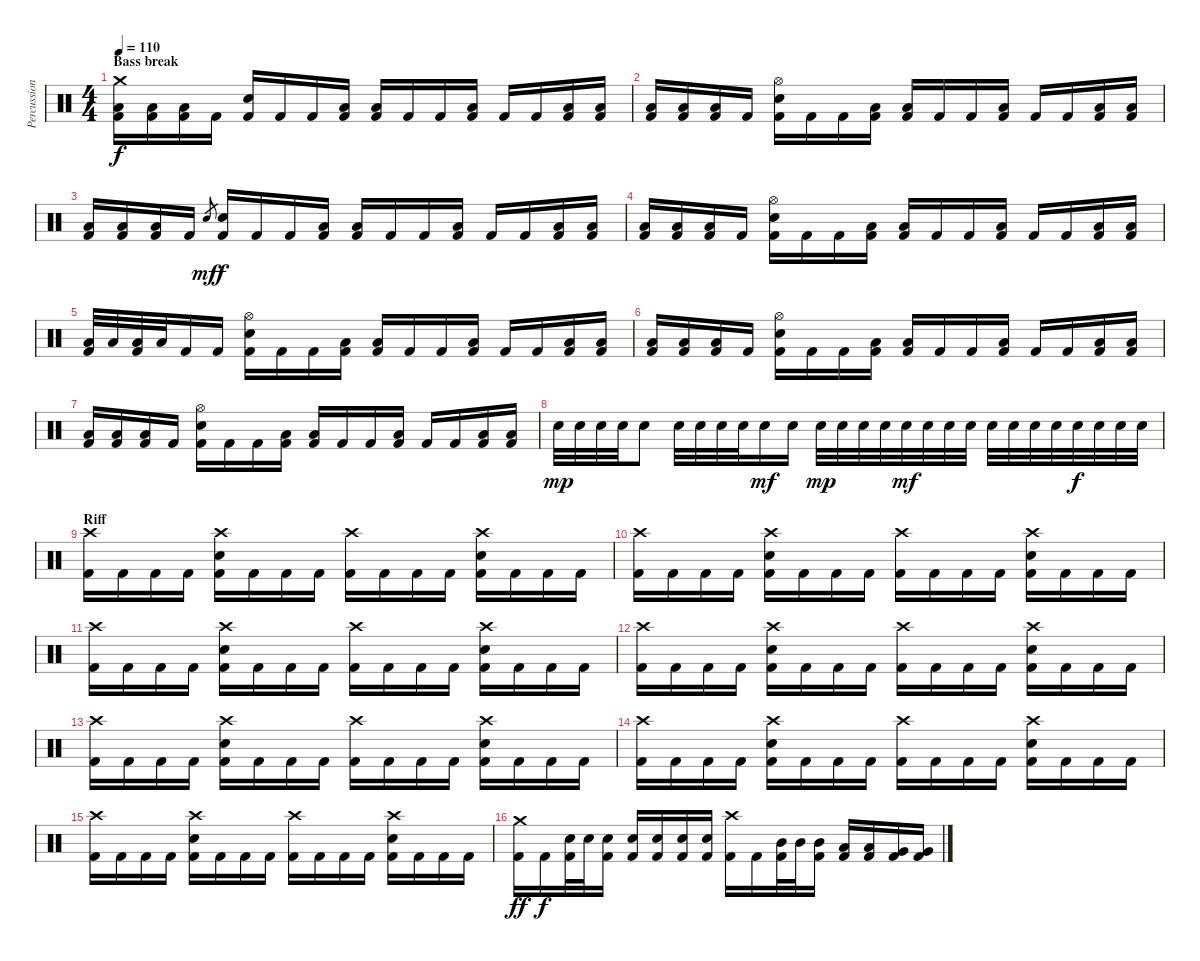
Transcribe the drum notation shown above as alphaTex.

\track ("Percussions" "Percussion") {instrument percussion}
\staff {score}
\articulation defaults
\ts (4 4)
\section ("" "Bass break")
\tempo 110
\clef neutral
\ks c
("Crash medium (hit)" "Low Tom (hit)" "Kick (hit) 2").16{dy f} ("Low Tom (hit)" "Kick (hit) 2").16 ("Low Tom (hit)" "Kick (hit) 2").16 "Kick (hit) 2".16 ("Electric Snare (hit)" "Kick (hit) 2").16 "Kick (hit) 2".16 "Kick (hit) 2".16 ("Low Tom (hit)" "Kick (hit) 2").16 ("Low Tom (hit)" "Kick (hit) 2").16 "Kick (hit) 2".16 "Kick (hit) 2".16 ("Low Tom (hit)" "Kick (hit) 2").16 "Kick (hit) 2".16 "Kick (hit) 2".16 ("Low Tom (hit)" "Kick (hit) 2").16 ("Low Tom (hit)" "Kick (hit) 2").16 |
("Low Tom (hit)" "Kick (hit) 2").16 ("Low Tom (hit)" "Kick (hit) 2").16 ("Low Tom (hit)" "Kick (hit) 2").16 "Kick (hit) 2".16 ("Hi-Hat (open)" "Electric Snare (hit)" "Kick (hit) 2").16 "Kick (hit) 2".16 "Kick (hit) 2".16 ("Low Tom (hit)" "Kick (hit) 2").16 ("Low Tom (hit)" "Kick (hit) 2").16 "Kick (hit) 2".16 "Kick (hit) 2".16 ("Low Tom (hit)" "Kick (hit) 2").16 "Kick (hit) 2".16 "Kick (hit) 2".16 ("Low Tom (hit)" "Kick (hit) 2").16 ("Low Tom (hit)" "Kick (hit) 2").16 |
("Low Tom (hit)" "Kick (hit) 2").16 ("Low Tom (hit)" "Kick (hit) 2").16 ("Low Tom (hit)" "Kick (hit) 2").16 "Kick (hit) 2".16 "Electric Snare (hit)".8{gr dy mf} ("Electric Snare (hit)" "Kick (hit) 2").16{dy f} "Kick (hit) 2".16 "Kick (hit) 2".16 ("Low Tom (hit)" "Kick (hit) 2").16 ("Low Tom (hit)" "Kick (hit) 2").16 "Kick (hit) 2".16 "Kick (hit) 2".16 ("Low Tom (hit)" "Kick (hit) 2").16 "Kick (hit) 2".16 "Kick (hit) 2".16 ("Low Tom (hit)" "Kick (hit) 2").16 ("Low Tom (hit)" "Kick (hit) 2").16 |
("Low Tom (hit)" "Kick (hit) 2").16 ("Low Tom (hit)" "Kick (hit) 2").16 ("Low Tom (hit)" "Kick (hit) 2").16 "Kick (hit) 2".16 ("Hi-Hat (open)" "Electric Snare (hit)" "Kick (hit) 2").16 "Kick (hit) 2".16 "Kick (hit) 2".16 ("Low Tom (hit)" "Kick (hit) 2").16 ("Low Tom (hit)" "Kick (hit) 2").16 "Kick (hit) 2".16 "Kick (hit) 2".16 ("Low Tom (hit)" "Kick (hit) 2").16 "Kick (hit) 2".16 "Kick (hit) 2".16 ("Low Tom (hit)" "Kick (hit) 2").16 ("Low Tom (hit)" "Kick (hit) 2").16 |
("Low Tom (hit)" "Kick (hit) 2").32 "Low Tom (hit)".32 ("Low Tom (hit)" "Kick (hit) 2").32 "Low Tom (hit)".32 "Kick (hit) 2".16 "Kick (hit) 2".16 ("Hi-Hat (open)" "Electric Snare (hit)" "Kick (hit) 2").16 "Kick (hit) 2".16 "Kick (hit) 2".16 ("Low Tom (hit)" "Kick (hit) 2").16 ("Low Tom (hit)" "Kick (hit) 2").16 "Kick (hit) 2".16 "Kick (hit) 2".16 ("Low Tom (hit)" "Kick (hit) 2").16 "Kick (hit) 2".16 "Kick (hit) 2".16 ("Low Tom (hit)" "Kick (hit) 2").16 ("Low Tom (hit)" "Kick (hit) 2").16 |
("Low Tom (hit)" "Kick (hit) 2").16 ("Low Tom (hit)" "Kick (hit) 2").16 ("Low Tom (hit)" "Kick (hit) 2").16 "Kick (hit) 2".16 ("Hi-Hat (open)" "Electric Snare (hit)" "Kick (hit) 2").16 "Kick (hit) 2".16 "Kick (hit) 2".16 ("Low Tom (hit)" "Kick (hit) 2").16 ("Low Tom (hit)" "Kick (hit) 2").16 "Kick (hit) 2".16 "Kick (hit) 2".16 ("Low Tom (hit)" "Kick (hit) 2").16 "Kick (hit) 2".16 "Kick (hit) 2".16 ("Low Tom (hit)" "Kick (hit) 2").16 ("Low Tom (hit)" "Kick (hit) 2").16 |
("Low Tom (hit)" "Kick (hit) 2").16 ("Low Tom (hit)" "Kick (hit) 2").16 ("Low Tom (hit)" "Kick (hit) 2").16 "Kick (hit) 2".16 ("Hi-Hat (open)" "Electric Snare (hit)" "Kick (hit) 2").16 "Kick (hit) 2".16 "Kick (hit) 2".16 ("Low Tom (hit)" "Kick (hit) 2").16 ("Low Tom (hit)" "Kick (hit) 2").16 "Kick (hit) 2".16 "Kick (hit) 2".16 ("Low Tom (hit)" "Kick (hit) 2").16 "Kick (hit) 2".16 "Kick (hit) 2".16 ("Low Tom (hit)" "Kick (hit) 2").16 ("Low Tom (hit)" "Kick (hit) 2").16 |
"Electric Snare (hit)".32{dy mp} "Electric Snare (hit)".32 "Electric Snare (hit)".32 "Electric Snare (hit)".32 "Electric Snare (hit)".8 "Electric Snare (hit)".32 "Electric Snare (hit)".32 "Electric Snare (hit)".32 "Electric Snare (hit)".32 "Electric Snare (hit)".16{dy mf} "Electric Snare (hit)".16 "Electric Snare (hit)".32{dy mp} "Electric Snare (hit)".32 "Electric Snare (hit)".32 "Electric Snare (hit)".32 "Electric Snare (hit)".32{dy mf} "Electric Snare (hit)".32 "Electric Snare (hit)".32 "Electric Snare (hit)".32 "Electric Snare (hit)".32 "Electric Snare (hit)".32 "Electric Snare (hit)".32 "Electric Snare (hit)".32 "Electric Snare (hit)".32{dy f} "Electric Snare (hit)".32 "Electric Snare (hit)".32 "Electric Snare (hit)".32 |
\section ("" "Riff")
("Crash high (hit)" "Kick (hit) 2").16 "Kick (hit) 2".16 "Kick (hit) 2".16 "Kick (hit) 2".16 ("Crash high (hit)" "Electric Snare (hit)" "Kick (hit) 2").16 "Kick (hit) 2".16 "Kick (hit) 2".16 "Kick (hit) 2".16 ("Crash high (hit)" "Kick (hit) 2").16 "Kick (hit) 2".16 "Kick (hit) 2".16 "Kick (hit) 2".16 ("Crash high (hit)" "Electric Snare (hit)" "Kick (hit) 2").16 "Kick (hit) 2".16 "Kick (hit) 2".16 "Kick (hit) 2".16 |
("Crash high (hit)" "Kick (hit) 2").16 "Kick (hit) 2".16 "Kick (hit) 2".16 "Kick (hit) 2".16 ("Crash high (hit)" "Electric Snare (hit)" "Kick (hit) 2").16 "Kick (hit) 2".16 "Kick (hit) 2".16 "Kick (hit) 2".16 ("Crash high (hit)" "Kick (hit) 2").16 "Kick (hit) 2".16 "Kick (hit) 2".16 "Kick (hit) 2".16 ("Crash high (hit)" "Electric Snare (hit)" "Kick (hit) 2").16 "Kick (hit) 2".16 "Kick (hit) 2".16 "Kick (hit) 2".16 |
("Crash high (hit)" "Kick (hit) 2").16 "Kick (hit) 2".16 "Kick (hit) 2".16 "Kick (hit) 2".16 ("Crash high (hit)" "Electric Snare (hit)" "Kick (hit) 2").16 "Kick (hit) 2".16 "Kick (hit) 2".16 "Kick (hit) 2".16 ("Crash high (hit)" "Kick (hit) 2").16 "Kick (hit) 2".16 "Kick (hit) 2".16 "Kick (hit) 2".16 ("Crash high (hit)" "Electric Snare (hit)" "Kick (hit) 2").16 "Kick (hit) 2".16 "Kick (hit) 2".16 "Kick (hit) 2".16 |
("Crash high (hit)" "Kick (hit) 2").16 "Kick (hit) 2".16 "Kick (hit) 2".16 "Kick (hit) 2".16 ("Crash high (hit)" "Electric Snare (hit)" "Kick (hit) 2").16 "Kick (hit) 2".16 "Kick (hit) 2".16 "Kick (hit) 2".16 ("Crash high (hit)" "Kick (hit) 2").16 "Kick (hit) 2".16 "Kick (hit) 2".16 "Kick (hit) 2".16 ("Crash high (hit)" "Electric Snare (hit)" "Kick (hit) 2").16 "Kick (hit) 2".16 "Kick (hit) 2".16 "Kick (hit) 2".16 |
("Crash high (hit)" "Kick (hit) 2").16 "Kick (hit) 2".16 "Kick (hit) 2".16 "Kick (hit) 2".16 ("Crash high (hit)" "Electric Snare (hit)" "Kick (hit) 2").16 "Kick (hit) 2".16 "Kick (hit) 2".16 "Kick (hit) 2".16 ("Crash high (hit)" "Kick (hit) 2").16 "Kick (hit) 2".16 "Kick (hit) 2".16 "Kick (hit) 2".16 ("Crash high (hit)" "Electric Snare (hit)" "Kick (hit) 2").16 "Kick (hit) 2".16 "Kick (hit) 2".16 "Kick (hit) 2".16 |
("Crash high (hit)" "Kick (hit) 2").16 "Kick (hit) 2".16 "Kick (hit) 2".16 "Kick (hit) 2".16 ("Crash high (hit)" "Electric Snare (hit)" "Kick (hit) 2").16 "Kick (hit) 2".16 "Kick (hit) 2".16 "Kick (hit) 2".16 ("Crash high (hit)" "Kick (hit) 2").16 "Kick (hit) 2".16 "Kick (hit) 2".16 "Kick (hit) 2".16 ("Crash high (hit)" "Electric Snare (hit)" "Kick (hit) 2").16 "Kick (hit) 2".16 "Kick (hit) 2".16 "Kick (hit) 2".16 |
("Crash high (hit)" "Kick (hit) 2").16 "Kick (hit) 2".16 "Kick (hit) 2".16 "Kick (hit) 2".16 ("Crash high (hit)" "Electric Snare (hit)" "Kick (hit) 2").16 "Kick (hit) 2".16 "Kick (hit) 2".16 "Kick (hit) 2".16 ("Crash high (hit)" "Kick (hit) 2").16 "Kick (hit) 2".16 "Kick (hit) 2".16 "Kick (hit) 2".16 ("Crash high (hit)" "Electric Snare (hit)" "Kick (hit) 2").16 "Kick (hit) 2".16 "Kick (hit) 2".16 "Kick (hit) 2".16 |
("Crash medium (hit)" "Kick (hit) 2").16{dy ff} "Kick (hit) 2".16{dy f} ("Electric Snare (hit)" "Kick (hit) 2").32 "Electric Snare (hit)".32 ("Electric Snare (hit)" "Kick (hit) 2").16 ("Electric Snare (hit)" "Kick (hit) 2").16 ("Electric Snare (hit)" "Kick (hit) 2").16 ("Electric Snare (hit)" "Kick (hit) 2").16 ("Electric Snare (hit)" "Kick (hit) 2").16 ("Crash high (hit)" "Kick (hit) 2").16 "Kick (hit) 2".16 ("Mid Tom (hit)" "Kick (hit) 2").32 "Mid Tom (hit)".32 ("Mid Tom (hit)" "Kick (hit) 2").16 ("Low Tom (hit)" "Kick (hit) 2").16 ("Low Tom (hit)" "Kick (hit) 2").16 ("Very Low Tom (hit)" "Kick (hit) 2").16 ("Very Low Tom (hit)" "Kick (hit) 2").16
